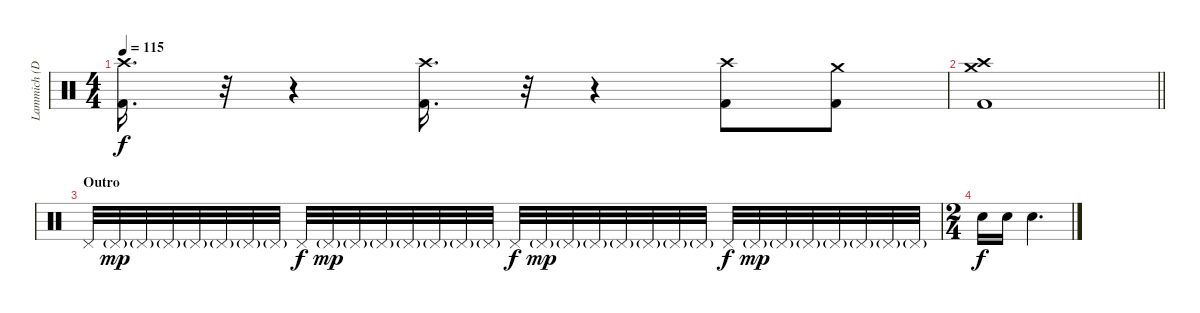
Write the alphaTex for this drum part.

\track ("Lammich (Drums)" "Lammich (D") {instrument percussion}
\staff {score}
\articulation defaults
\ts (4 4)
\tempo 115
\clef neutral
\ks c
("Crash high (hit)" "Kick (hit) 2").16{d dy f} r.32{volume 0} r.4 ("Crash high (hit)" "Kick (hit) 2").16{d volume 16} r.32{volume 0} r.4 ("Crash high (hit)" "Kick (hit) 2").8{volume 16} ("Crash medium (hit)" "Kick (hit) 2").8 |
\barLineRight lightlight
("Crash medium (hit)" "Crash high (hit)" "Kick (hit) 2").1 |
\section ("" "Outro")
"Pedal Hi-Hat (hit)".32 "Pedal Hi-Hat (hit)"{g}.32{dy mp} "Pedal Hi-Hat (hit)"{g}.32 "Pedal Hi-Hat (hit)"{g}.32 "Pedal Hi-Hat (hit)"{g}.32 "Pedal Hi-Hat (hit)"{g}.32 "Pedal Hi-Hat (hit)"{g}.32 "Pedal Hi-Hat (hit)"{g}.32 "Pedal Hi-Hat (hit)".32{dy f} "Pedal Hi-Hat (hit)"{g}.32{dy mp} "Pedal Hi-Hat (hit)"{g}.32 "Pedal Hi-Hat (hit)"{g}.32 "Pedal Hi-Hat (hit)"{g}.32 "Pedal Hi-Hat (hit)"{g}.32 "Pedal Hi-Hat (hit)"{g}.32 "Pedal Hi-Hat (hit)"{g}.32 "Pedal Hi-Hat (hit)".32{dy f} "Pedal Hi-Hat (hit)"{g}.32{dy mp} "Pedal Hi-Hat (hit)"{g}.32 "Pedal Hi-Hat (hit)"{g}.32 "Pedal Hi-Hat (hit)"{g}.32 "Pedal Hi-Hat (hit)"{g}.32 "Pedal Hi-Hat (hit)"{g}.32 "Pedal Hi-Hat (hit)"{g}.32 "Pedal Hi-Hat (hit)".32{dy f} "Pedal Hi-Hat (hit)"{g}.32{dy mp} "Pedal Hi-Hat (hit)"{g}.32 "Pedal Hi-Hat (hit)"{g}.32 "Pedal Hi-Hat (hit)"{g}.32 "Pedal Hi-Hat (hit)"{g}.32 "Pedal Hi-Hat (hit)"{g}.32 "Pedal Hi-Hat (hit)"{g}.32 |
\ts (2 4)
"Electric Snare (hit)".16{dy f} "Electric Snare (hit)".16 "Electric Snare (hit)".4{d}
